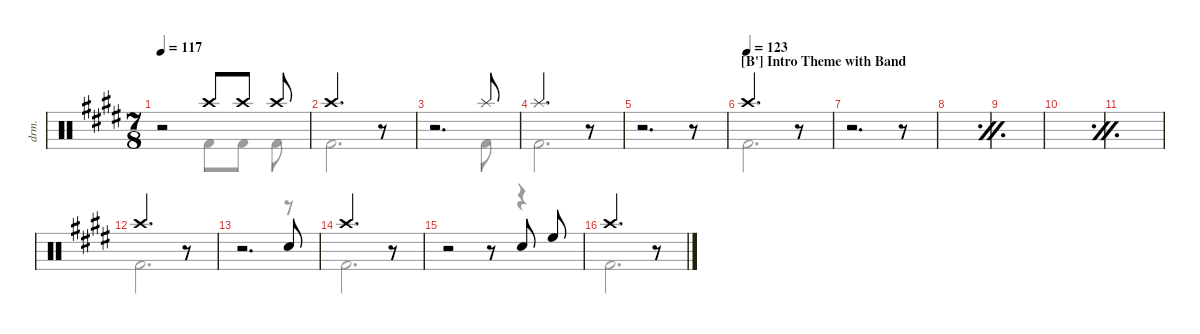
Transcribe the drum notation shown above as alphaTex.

\defaultSystemsLayout 4
\hideDynamics
\bracketExtendMode nobrackets
\track ("Drums" "drm.") {instrument percussion}
\staff {score}
\articulation defaults
\voice
\ts (7 8)
\tempo 117
\clef neutral
\scale
1.1465
\ks e
r.2{dy mf} "Crash high (hit)"{acc forcenatural}.8{beam merge} "Crash high (hit)"{acc forcenatural}.8{beam split} "Crash high (hit)"{acc forcenatural}.8 |
\scale
1.25391 "Crash high (hit)"{acc forcenatural}.2{d} r.8 |
\scale
0.88084 r.2{d} "Splash (hit)"{acc forcenatural}.8 |
\scale
0.88084 "Splash (hit)"{acc forcenatural}.2{d} r.8 |
\scale
0.913379 r.2{d} r.8 |
\section ("B'" "Intro Theme with Band")
\tempo (123)
"Crash high (hit)"{acc forcenatural}.2{d} r.8 |
r.2{d} r.8 |
\simile firstofdouble
|
\simile secondofdouble
|
\simile firstofdouble
|
\simile secondofdouble
|
\simile none "Crash high (hit)"{acc forcenatural}.2{d}
r.8 |
r.2{d} "Snare (hit) 2"{acc forcenatural}.8 |
"Crash high (hit)"{acc forcenatural}.2{d} r.8 |
r.2 r.8{beam merge} "Snare (hit) 2"{acc forcenatural}.8{beam split} "High Floor Tom (hit)"{acc forcenatural}.8 |
"Crash high (hit)"{acc forcenatural}.2{d} r.8
\voice
\clef neutral
\ottava regular
\simile none
\scale
1.1465
\ks e
r.2{dy mf} "Kick (hit) 2"{acc forcenatural}.8{beam merge} "Kick (hit) 2"{acc forcenatural}.8{beam split} "Kick (hit) 2"{acc forcenatural}.8 |
\scale
1.25391 "Kick (hit) 2"{acc forcenatural}.2{d} r.8 |
\scale
0.88084 r.2{d} "Kick (hit) 2"{acc forcenatural}.8 |
\scale
0.88084 "Kick (hit) 2"{acc forcenatural}.2{d} r.8 |
\scale
0.913379 r.2{d} r.8 |
"Kick (hit) 2"{acc forcenatural}.2{d} r.8 |
r.2{d} r.8 |
\simile firstofdouble
|
\simile secondofdouble
|
\simile firstofdouble
|
\simile secondofdouble
|
\simile none "Kick (hit) 2"{acc forcenatural}.2{d}
r.8 |
r.2{d} r.8 |
"Kick (hit) 2"{acc forcenatural}.2{d} r.8 |
r.2 r.8 r.4 |
"Kick (hit) 2"{acc forcenatural}.2{d} r.8
